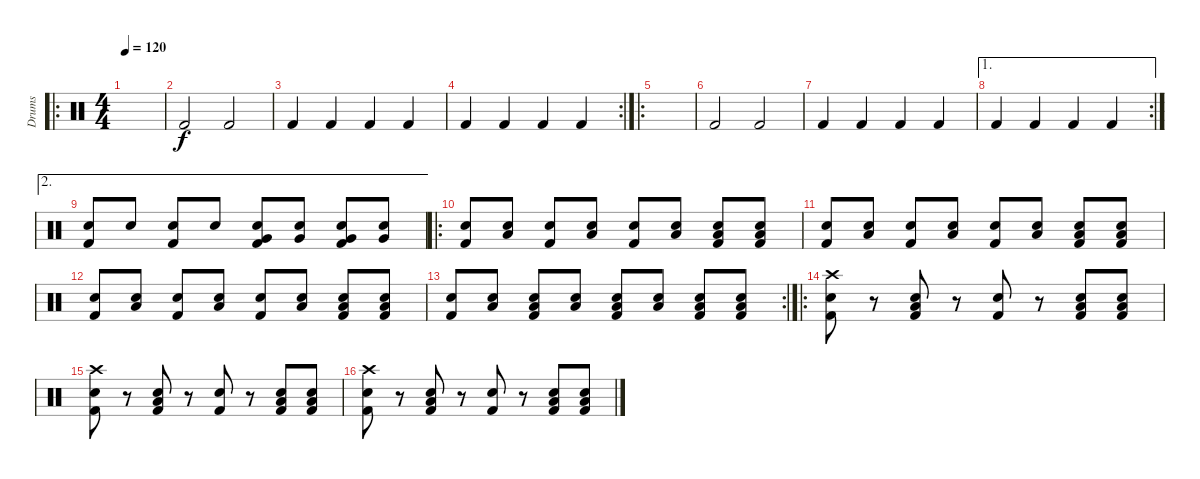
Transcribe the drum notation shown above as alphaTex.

\track ("Drums" "Drums") {instrument percussion}
\staff {score}
\articulation defaults
\ro
\ts (4 4)
\tempo 120
\clef neutral
\ks c
|
"Kick (hit) 2".2 "Kick (hit) 2".2 |
"Kick (hit) 2".4 "Kick (hit) 2".4 "Kick (hit) 2".4 "Kick (hit) 2".4 |
\rc 2 "Kick (hit) 2".4 "Kick (hit) 2".4 "Kick (hit) 2".4 "Kick (hit) 2".4
|
\ro
|
"Kick (hit) 2".2 "Kick (hit) 2".2 |
"Kick (hit) 2".4 "Kick (hit) 2".4 "Kick (hit) 2".4 "Kick (hit) 2".4 |
\ae 1
\rc 2 "Kick (hit) 2".4 "Kick (hit) 2".4 "Kick (hit) 2".4 "Kick (hit) 2".4
|
\ae 2
("Electric Snare (hit)" "Kick (hit) 2").8 "Electric Snare (hit)".8 ("Electric Snare (hit)" "Kick (hit) 2").8 "Electric Snare (hit)".8 ("Electric Snare (hit)" "Very Low Tom (hit)" "Kick (hit) 2").8 ("Electric Snare (hit)" "Very Low Tom (hit)").8 ("Electric Snare (hit)" "Very Low Tom (hit)" "Kick (hit) 2").8 ("Electric Snare (hit)" "Very Low Tom (hit)").8 |
\ro
("Electric Snare (hit)" "Kick (hit) 2").8 ("Electric Snare (hit)" "Low Tom (hit)").8 ("Electric Snare (hit)" "Kick (hit) 2").8 ("Electric Snare (hit)" "Low Tom (hit)").8 ("Electric Snare (hit)" "Kick (hit) 2").8 ("Electric Snare (hit)" "Low Tom (hit)").8 ("Electric Snare (hit)" "Low Tom (hit)" "Kick (hit) 2").8 ("Electric Snare (hit)" "Low Tom (hit)" "Kick (hit) 2").8 |
("Electric Snare (hit)" "Kick (hit) 2").8 ("Electric Snare (hit)" "Low Tom (hit)").8 ("Electric Snare (hit)" "Kick (hit) 2").8 ("Electric Snare (hit)" "Low Tom (hit)").8 ("Electric Snare (hit)" "Kick (hit) 2").8 ("Electric Snare (hit)" "Low Tom (hit)").8 ("Electric Snare (hit)" "Low Tom (hit)" "Kick (hit) 2").8 ("Electric Snare (hit)" "Low Tom (hit)" "Kick (hit) 2").8 |
("Electric Snare (hit)" "Kick (hit) 2").8 ("Electric Snare (hit)" "Low Tom (hit)").8 ("Electric Snare (hit)" "Kick (hit) 2").8 ("Electric Snare (hit)" "Low Tom (hit)").8 ("Electric Snare (hit)" "Kick (hit) 2").8 ("Electric Snare (hit)" "Low Tom (hit)").8 ("Electric Snare (hit)" "Low Tom (hit)" "Kick (hit) 2").8 ("Electric Snare (hit)" "Low Tom (hit)" "Kick (hit) 2").8 |
\rc 2
("Electric Snare (hit)" "Kick (hit) 2").8 ("Electric Snare (hit)" "Low Tom (hit)").8 ("Electric Snare (hit)" "Low Tom (hit)" "Kick (hit) 2").8 ("Electric Snare (hit)" "Low Tom (hit)").8 ("Electric Snare (hit)" "Low Tom (hit)" "Kick (hit) 2").8 ("Electric Snare (hit)" "Low Tom (hit)").8 ("Electric Snare (hit)" "Low Tom (hit)" "Kick (hit) 2").8 ("Electric Snare (hit)" "Low Tom (hit)" "Kick (hit) 2").8 |
\ro
("Electric Snare (hit)" "Crash high (hit)" "Kick (hit) 2").8 r.8 ("Electric Snare (hit)" "Low Tom (hit)" "Kick (hit) 2").8 r.8 ("Electric Snare (hit)" "Kick (hit) 2").8 r.8 ("Electric Snare (hit)" "Low Tom (hit)" "Kick (hit) 2").8 ("Electric Snare (hit)" "Low Tom (hit)" "Kick (hit) 2").8 |
("Electric Snare (hit)" "Crash high (hit)" "Kick (hit) 2").8 r.8 ("Electric Snare (hit)" "Low Tom (hit)" "Kick (hit) 2").8 r.8 ("Electric Snare (hit)" "Kick (hit) 2").8 r.8 ("Electric Snare (hit)" "Low Tom (hit)" "Kick (hit) 2").8 ("Electric Snare (hit)" "Low Tom (hit)" "Kick (hit) 2").8 |
("Electric Snare (hit)" "Crash high (hit)" "Kick (hit) 2").8 r.8 ("Electric Snare (hit)" "Low Tom (hit)" "Kick (hit) 2").8 r.8 ("Electric Snare (hit)" "Kick (hit) 2").8 r.8 ("Electric Snare (hit)" "Low Tom (hit)" "Kick (hit) 2").8 ("Electric Snare (hit)" "Low Tom (hit)" "Kick (hit) 2").8
